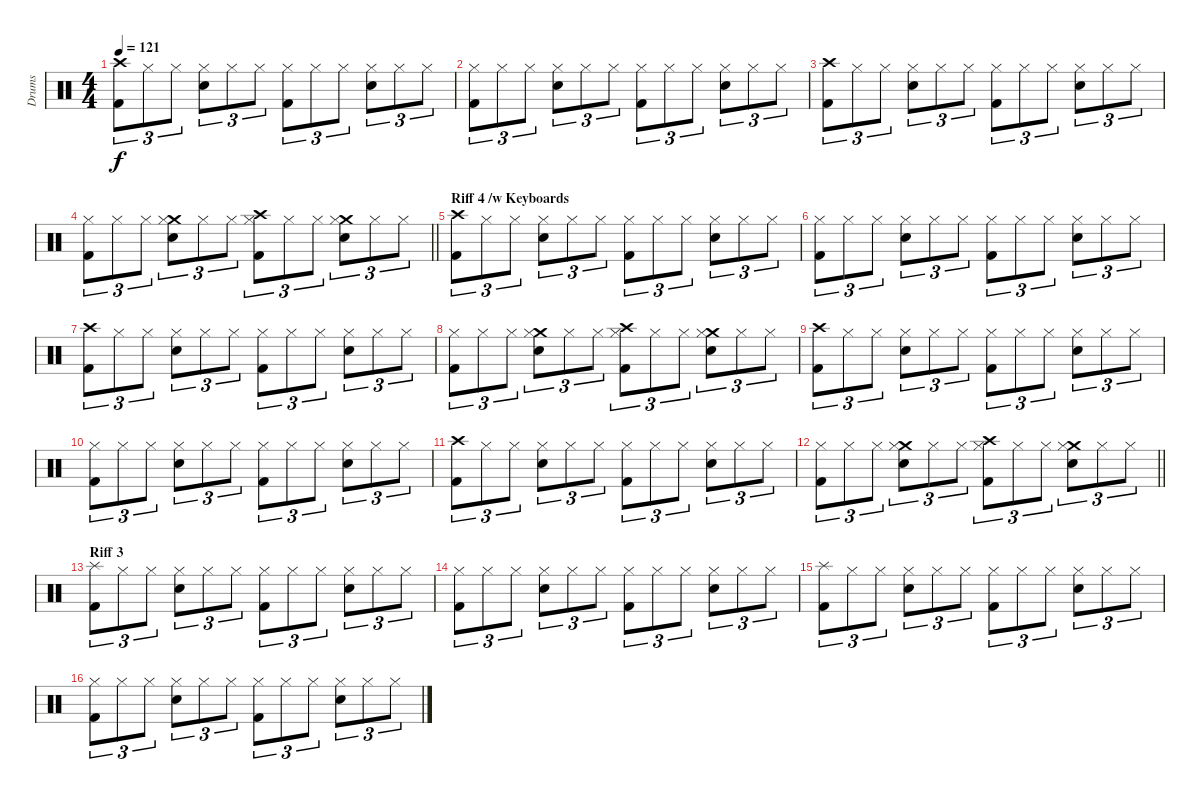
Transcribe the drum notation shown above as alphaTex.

\track ("Drums" "Drums") {instrument percussion}
\staff {score}
\articulation defaults
\ts (4 4)
\tempo 121
\clef neutral
\ks c
("Crash high (hit)" "Kick (hit) 2").8{tu (3 2) dy f} "Hi-Hat (closed)".8{tu (3 2)} "Hi-Hat (closed)".8{tu (3 2)} ("Snare (hit) 2" "Hi-Hat (closed)").8{tu (3 2)} "Hi-Hat (closed)".8{tu (3 2)} "Hi-Hat (closed)".8{tu (3 2)} ("Kick (hit) 2" "Hi-Hat (closed)").8{tu (3 2)} "Hi-Hat (closed)".8{tu (3 2)} "Hi-Hat (closed)".8{tu (3 2)} ("Snare (hit) 2" "Hi-Hat (closed)").8{tu (3 2)} "Hi-Hat (closed)".8{tu (3 2)} "Hi-Hat (closed)".8{tu (3 2)} |
("Kick (hit) 2" "Hi-Hat (closed)").8{tu (3 2)} "Hi-Hat (closed)".8{tu (3 2)} "Hi-Hat (closed)".8{tu (3 2)} ("Snare (hit) 2" "Hi-Hat (closed)").8{tu (3 2)} "Hi-Hat (closed)".8{tu (3 2)} "Hi-Hat (closed)".8{tu (3 2)} ("Kick (hit) 2" "Hi-Hat (closed)").8{tu (3 2)} "Hi-Hat (closed)".8{tu (3 2)} "Hi-Hat (closed)".8{tu (3 2)} ("Snare (hit) 2" "Hi-Hat (closed)").8{tu (3 2)} "Hi-Hat (closed)".8{tu (3 2)} "Hi-Hat (closed)".8{tu (3 2)} |
("Crash high (hit)" "Kick (hit) 2").8{tu (3 2)} "Hi-Hat (closed)".8{tu (3 2)} "Hi-Hat (closed)".8{tu (3 2)} ("Snare (hit) 2" "Hi-Hat (closed)").8{tu (3 2)} "Hi-Hat (closed)".8{tu (3 2)} "Hi-Hat (closed)".8{tu (3 2)} ("Kick (hit) 2" "Hi-Hat (closed)").8{tu (3 2)} "Hi-Hat (closed)".8{tu (3 2)} "Hi-Hat (closed)".8{tu (3 2)} ("Snare (hit) 2" "Hi-Hat (closed)").8{tu (3 2)} "Hi-Hat (closed)".8{tu (3 2)} "Hi-Hat (closed)".8{tu (3 2)} |
\barLineRight lightlight
("Kick (hit) 2" "Hi-Hat (closed)").8{tu (3 2)} "Hi-Hat (closed)".8{tu (3 2)} "Hi-Hat (closed)".8{tu (3 2)} ("Crash medium (hit)" "Snare (hit) 2" "Hi-Hat (closed)").8{tu (3 2)} "Hi-Hat (closed)".8{tu (3 2)} "Hi-Hat (closed)".8{tu (3 2)} ("Crash high (hit)" "Kick (hit) 2" "Hi-Hat (closed)").8{tu (3 2)} "Hi-Hat (closed)".8{tu (3 2)} "Hi-Hat (closed)".8{tu (3 2)} ("Crash medium (hit)" "Snare (hit) 2" "Hi-Hat (closed)").8{tu (3 2)} "Hi-Hat (closed)".8{tu (3 2)} "Hi-Hat (closed)".8{tu (3 2)} |
\section ("" "Riff 4 /w Keyboards")
("Crash high (hit)" "Kick (hit) 2").8{tu (3 2)} "Hi-Hat (closed)".8{tu (3 2)} "Hi-Hat (closed)".8{tu (3 2)} ("Snare (hit) 2" "Hi-Hat (closed)").8{tu (3 2)} "Hi-Hat (closed)".8{tu (3 2)} "Hi-Hat (closed)".8{tu (3 2)} ("Kick (hit) 2" "Hi-Hat (closed)").8{tu (3 2)} "Hi-Hat (closed)".8{tu (3 2)} "Hi-Hat (closed)".8{tu (3 2)} ("Snare (hit) 2" "Hi-Hat (closed)").8{tu (3 2)} "Hi-Hat (closed)".8{tu (3 2)} "Hi-Hat (closed)".8{tu (3 2)} |
("Kick (hit) 2" "Hi-Hat (closed)").8{tu (3 2)} "Hi-Hat (closed)".8{tu (3 2)} "Hi-Hat (closed)".8{tu (3 2)} ("Snare (hit) 2" "Hi-Hat (closed)").8{tu (3 2)} "Hi-Hat (closed)".8{tu (3 2)} "Hi-Hat (closed)".8{tu (3 2)} ("Kick (hit) 2" "Hi-Hat (closed)").8{tu (3 2)} "Hi-Hat (closed)".8{tu (3 2)} "Hi-Hat (closed)".8{tu (3 2)} ("Snare (hit) 2" "Hi-Hat (closed)").8{tu (3 2)} "Hi-Hat (closed)".8{tu (3 2)} "Hi-Hat (closed)".8{tu (3 2)} |
("Crash high (hit)" "Kick (hit) 2").8{tu (3 2)} "Hi-Hat (closed)".8{tu (3 2)} "Hi-Hat (closed)".8{tu (3 2)} ("Snare (hit) 2" "Hi-Hat (closed)").8{tu (3 2)} "Hi-Hat (closed)".8{tu (3 2)} "Hi-Hat (closed)".8{tu (3 2)} ("Kick (hit) 2" "Hi-Hat (closed)").8{tu (3 2)} "Hi-Hat (closed)".8{tu (3 2)} "Hi-Hat (closed)".8{tu (3 2)} ("Snare (hit) 2" "Hi-Hat (closed)").8{tu (3 2)} "Hi-Hat (closed)".8{tu (3 2)} "Hi-Hat (closed)".8{tu (3 2)} |
("Kick (hit) 2" "Hi-Hat (closed)").8{tu (3 2)} "Hi-Hat (closed)".8{tu (3 2)} "Hi-Hat (closed)".8{tu (3 2)} ("Crash medium (hit)" "Snare (hit) 2" "Hi-Hat (closed)").8{tu (3 2)} "Hi-Hat (closed)".8{tu (3 2)} "Hi-Hat (closed)".8{tu (3 2)} ("Crash high (hit)" "Kick (hit) 2" "Hi-Hat (closed)").8{tu (3 2)} "Hi-Hat (closed)".8{tu (3 2)} "Hi-Hat (closed)".8{tu (3 2)} ("Crash medium (hit)" "Snare (hit) 2" "Hi-Hat (closed)").8{tu (3 2)} "Hi-Hat (closed)".8{tu (3 2)} "Hi-Hat (closed)".8{tu (3 2)} |
("Crash high (hit)" "Kick (hit) 2").8{tu (3 2)} "Hi-Hat (closed)".8{tu (3 2)} "Hi-Hat (closed)".8{tu (3 2)} ("Snare (hit) 2" "Hi-Hat (closed)").8{tu (3 2)} "Hi-Hat (closed)".8{tu (3 2)} "Hi-Hat (closed)".8{tu (3 2)} ("Kick (hit) 2" "Hi-Hat (closed)").8{tu (3 2)} "Hi-Hat (closed)".8{tu (3 2)} "Hi-Hat (closed)".8{tu (3 2)} ("Snare (hit) 2" "Hi-Hat (closed)").8{tu (3 2)} "Hi-Hat (closed)".8{tu (3 2)} "Hi-Hat (closed)".8{tu (3 2)} |
("Kick (hit) 2" "Hi-Hat (closed)").8{tu (3 2)} "Hi-Hat (closed)".8{tu (3 2)} "Hi-Hat (closed)".8{tu (3 2)} ("Snare (hit) 2" "Hi-Hat (closed)").8{tu (3 2)} "Hi-Hat (closed)".8{tu (3 2)} "Hi-Hat (closed)".8{tu (3 2)} ("Kick (hit) 2" "Hi-Hat (closed)").8{tu (3 2)} "Hi-Hat (closed)".8{tu (3 2)} "Hi-Hat (closed)".8{tu (3 2)} ("Snare (hit) 2" "Hi-Hat (closed)").8{tu (3 2)} "Hi-Hat (closed)".8{tu (3 2)} "Hi-Hat (closed)".8{tu (3 2)} |
("Crash high (hit)" "Kick (hit) 2").8{tu (3 2)} "Hi-Hat (closed)".8{tu (3 2)} "Hi-Hat (closed)".8{tu (3 2)} ("Snare (hit) 2" "Hi-Hat (closed)").8{tu (3 2)} "Hi-Hat (closed)".8{tu (3 2)} "Hi-Hat (closed)".8{tu (3 2)} ("Kick (hit) 2" "Hi-Hat (closed)").8{tu (3 2)} "Hi-Hat (closed)".8{tu (3 2)} "Hi-Hat (closed)".8{tu (3 2)} ("Snare (hit) 2" "Hi-Hat (closed)").8{tu (3 2)} "Hi-Hat (closed)".8{tu (3 2)} "Hi-Hat (closed)".8{tu (3 2)} |
\barLineRight lightlight
("Kick (hit) 2" "Hi-Hat (closed)").8{tu (3 2)} "Hi-Hat (closed)".8{tu (3 2)} "Hi-Hat (closed)".8{tu (3 2)} ("Crash medium (hit)" "Snare (hit) 2" "Hi-Hat (closed)").8{tu (3 2)} "Hi-Hat (closed)".8{tu (3 2)} "Hi-Hat (closed)".8{tu (3 2)} ("Crash high (hit)" "Kick (hit) 2" "Hi-Hat (closed)").8{tu (3 2)} "Hi-Hat (closed)".8{tu (3 2)} "Hi-Hat (closed)".8{tu (3 2)} ("Crash medium (hit)" "Snare (hit) 2" "Hi-Hat (closed)").8{tu (3 2)} "Hi-Hat (closed)".8{tu (3 2)} "Hi-Hat (closed)".8{tu (3 2)} |
\section ("" "Riff 3")
("Kick (hit) 2" "Splash (hit)").8{tu (3 2)} "Hi-Hat (closed)".8{tu (3 2)} "Hi-Hat (closed)".8{tu (3 2)} ("Snare (hit) 2" "Hi-Hat (closed)").8{tu (3 2)} "Hi-Hat (closed)".8{tu (3 2)} "Hi-Hat (closed)".8{tu (3 2)} ("Kick (hit) 2" "Hi-Hat (closed)").8{tu (3 2)} "Hi-Hat (closed)".8{tu (3 2)} "Hi-Hat (closed)".8{tu (3 2)} ("Snare (hit) 2" "Hi-Hat (closed)").8{tu (3 2)} "Hi-Hat (closed)".8{tu (3 2)} "Hi-Hat (closed)".8{tu (3 2)} |
("Kick (hit) 2" "Hi-Hat (closed)").8{tu (3 2)} "Hi-Hat (closed)".8{tu (3 2)} "Hi-Hat (closed)".8{tu (3 2)} ("Snare (hit) 2" "Hi-Hat (closed)").8{tu (3 2)} "Hi-Hat (closed)".8{tu (3 2)} "Hi-Hat (closed)".8{tu (3 2)} ("Kick (hit) 2" "Hi-Hat (closed)").8{tu (3 2)} "Hi-Hat (closed)".8{tu (3 2)} "Hi-Hat (closed)".8{tu (3 2)} ("Snare (hit) 2" "Hi-Hat (closed)").8{tu (3 2)} "Hi-Hat (closed)".8{tu (3 2)} "Hi-Hat (closed)".8{tu (3 2)} |
("Kick (hit) 2" "Splash (hit)").8{tu (3 2)} "Hi-Hat (closed)".8{tu (3 2)} "Hi-Hat (closed)".8{tu (3 2)} ("Snare (hit) 2" "Hi-Hat (closed)").8{tu (3 2)} "Hi-Hat (closed)".8{tu (3 2)} "Hi-Hat (closed)".8{tu (3 2)} ("Kick (hit) 2" "Hi-Hat (closed)").8{tu (3 2)} "Hi-Hat (closed)".8{tu (3 2)} "Hi-Hat (closed)".8{tu (3 2)} ("Snare (hit) 2" "Hi-Hat (closed)").8{tu (3 2)} "Hi-Hat (closed)".8{tu (3 2)} "Hi-Hat (closed)".8{tu (3 2)} |
("Kick (hit) 2" "Hi-Hat (closed)").8{tu (3 2)} "Hi-Hat (closed)".8{tu (3 2)} "Hi-Hat (closed)".8{tu (3 2)} ("Snare (hit) 2" "Hi-Hat (closed)").8{tu (3 2)} "Hi-Hat (closed)".8{tu (3 2)} "Hi-Hat (closed)".8{tu (3 2)} ("Kick (hit) 2" "Hi-Hat (closed)").8{tu (3 2)} "Hi-Hat (closed)".8{tu (3 2)} "Hi-Hat (closed)".8{tu (3 2)} ("Snare (hit) 2" "Hi-Hat (closed)").8{tu (3 2)} "Hi-Hat (closed)".8{tu (3 2)} "Hi-Hat (closed)".8{tu (3 2)}
